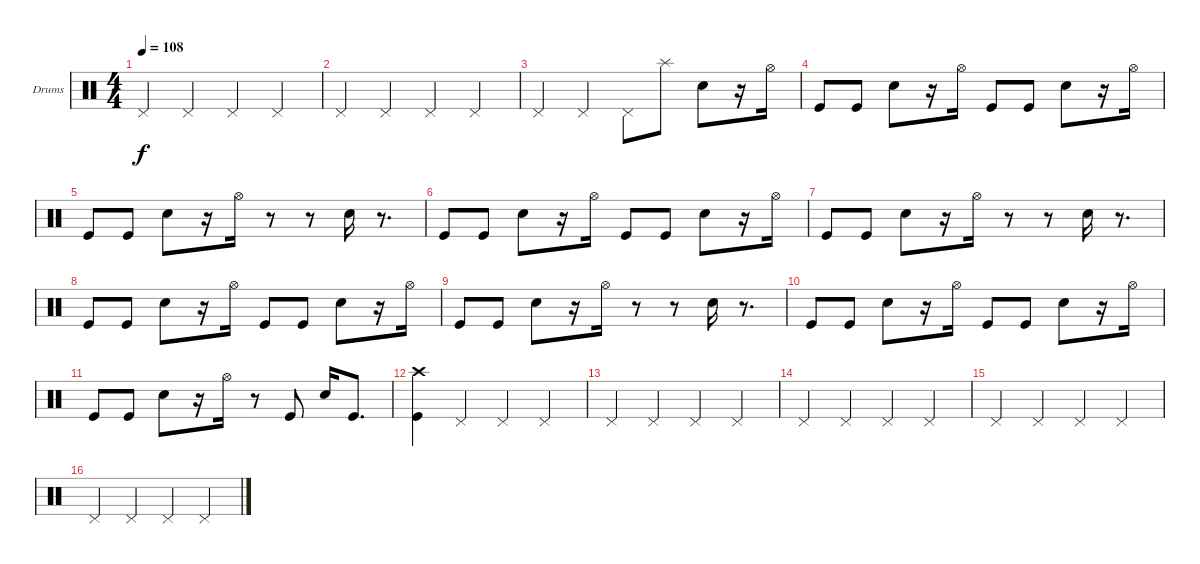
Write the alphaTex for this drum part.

\bracketExtendMode groupsimilarinstruments
\firstSystemTrackNameOrientation horizontal
\otherSystemsTrackNameOrientation horizontal
\track ("Drumkit" "Drums") {instrument percussion}
\staff {score}
\articulation defaults
\ts (4 4)
\tempo 108
\clef neutral
\ks c "Pedal Hi-Hat (hit)".4{dy f} "Pedal Hi-Hat (hit)".4 "Pedal Hi-Hat (hit)".4 "Pedal Hi-Hat (hit)".4
|
"Pedal Hi-Hat (hit)".4 "Pedal Hi-Hat (hit)".4 "Pedal Hi-Hat (hit)".4 "Pedal Hi-Hat (hit)".4 |
"Pedal Hi-Hat (hit)".4 "Pedal Hi-Hat (hit)".4 "Pedal Hi-Hat (hit)".8 "Splash (hit)".8 "Snare (hit) 2".8 r.16 "Hi-Hat (open)".16 |
"Kick (hit)".8 "Kick (hit)".8 "Snare (hit) 2".8 r.16 "Hi-Hat (open)".16 "Kick (hit)".8 "Kick (hit)".8 "Snare (hit) 2".8 r.16 "Hi-Hat (open)".16 |
"Kick (hit)".8 "Kick (hit)".8 "Snare (hit) 2".8 r.16 "Hi-Hat (open)".16 r.8 r.8 "Snare (hit) 2".16 r.8{d} |
"Kick (hit)".8 "Kick (hit)".8 "Snare (hit) 2".8 r.16 "Hi-Hat (open)".16 "Kick (hit)".8 "Kick (hit)".8 "Snare (hit) 2".8 r.16 "Hi-Hat (open)".16 |
"Kick (hit)".8 "Kick (hit)".8 "Snare (hit) 2".8 r.16 "Hi-Hat (open)".16 r.8 r.8 "Snare (hit) 2".16 r.8{d} |
"Kick (hit)".8 "Kick (hit)".8 "Snare (hit) 2".8 r.16 "Hi-Hat (open)".16 "Kick (hit)".8 "Kick (hit)".8 "Snare (hit) 2".8 r.16 "Hi-Hat (open)".16 |
"Kick (hit)".8 "Kick (hit)".8 "Snare (hit) 2".8 r.16 "Hi-Hat (open)".16 r.8 r.8 "Snare (hit) 2".16 r.8{d} |
"Kick (hit)".8 "Kick (hit)".8 "Snare (hit) 2".8 r.16 "Hi-Hat (open)".16 "Kick (hit)".8 "Kick (hit)".8 "Snare (hit) 2".8 r.16 "Hi-Hat (open)".16 |
"Kick (hit)".8 "Kick (hit)".8 "Snare (hit) 2".8 r.16 "Hi-Hat (open)".16 r.8 "Kick (hit)".8 "Snare (hit) 2".16 "Kick (hit)".8{d} |
("Crash high (hit)" "Kick (hit)").4 "Pedal Hi-Hat (hit)".4 "Pedal Hi-Hat (hit)".4 "Pedal Hi-Hat (hit)".4 |
"Pedal Hi-Hat (hit)".4 "Pedal Hi-Hat (hit)".4 "Pedal Hi-Hat (hit)".4 "Pedal Hi-Hat (hit)".4 |
"Pedal Hi-Hat (hit)".4 "Pedal Hi-Hat (hit)".4 "Pedal Hi-Hat (hit)".4 "Pedal Hi-Hat (hit)".4 |
"Pedal Hi-Hat (hit)".4 "Pedal Hi-Hat (hit)".4 "Pedal Hi-Hat (hit)".4 "Pedal Hi-Hat (hit)".4 |
"Pedal Hi-Hat (hit)".4 "Pedal Hi-Hat (hit)".4 "Pedal Hi-Hat (hit)".4 "Pedal Hi-Hat (hit)".4
